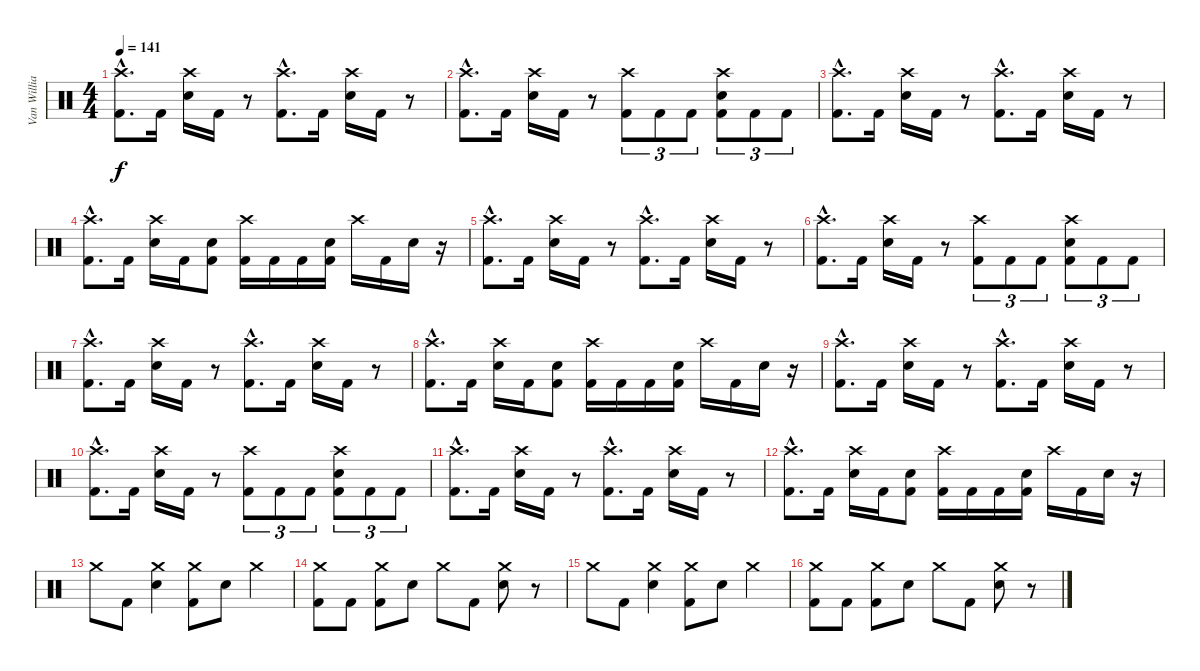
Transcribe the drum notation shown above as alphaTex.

\track ("Van Williams" "Van Willia") {instrument percussion}
\staff {score}
\articulation defaults
\ts (4 4)
\tempo 141
\clef neutral
\ks c
("Crash high (hit)"{hac} "Kick (hit) 2"{hac}).8{d dy f} "Kick (hit) 2".16 ("Crash high (hit)" "Electric Snare (hit)").16 "Kick (hit) 2".16 r.8 ("Crash high (hit)"{hac} "Kick (hit) 2"{hac}).8{d} "Kick (hit) 2".16 ("Crash high (hit)" "Electric Snare (hit)").16 "Kick (hit) 2".16 r.8 |
("Crash high (hit)"{hac} "Kick (hit) 2"{hac}).8{d} "Kick (hit) 2".16 ("Crash high (hit)" "Electric Snare (hit)").16 "Kick (hit) 2".16 r.8 ("Crash high (hit)" "Kick (hit) 2").8{tu (3 2)} "Kick (hit) 2".8{tu (3 2)} "Kick (hit) 2".8{tu (3 2)} ("Crash high (hit)" "Electric Snare (hit)" "Kick (hit) 2").8{tu (3 2)} "Kick (hit) 2".8{tu (3 2)} "Kick (hit) 2".8{tu (3 2)} |
("Crash high (hit)"{hac} "Kick (hit) 2"{hac}).8{d} "Kick (hit) 2".16 ("Crash high (hit)" "Electric Snare (hit)").16 "Kick (hit) 2".16 r.8 ("Crash high (hit)"{hac} "Kick (hit) 2"{hac}).8{d} "Kick (hit) 2".16 ("Crash high (hit)" "Electric Snare (hit)").16 "Kick (hit) 2".16 r.8 |
("Crash high (hit)"{hac} "Kick (hit) 2"{hac}).8{d} "Kick (hit) 2".16 ("Crash high (hit)" "Electric Snare (hit)").16 "Kick (hit) 2".16 ("Electric Snare (hit)" "Kick (hit) 2").8 ("Crash high (hit)" "Kick (hit) 2").16 "Kick (hit) 2".16 "Kick (hit) 2".16 ("Electric Snare (hit)" "Kick (hit) 2").16 "Crash high (hit)".16 "Kick (hit) 2".16 "Electric Snare (hit)".16 r.16 |
("Crash high (hit)"{hac} "Kick (hit) 2"{hac}).8{d} "Kick (hit) 2".16 ("Crash high (hit)" "Electric Snare (hit)").16 "Kick (hit) 2".16 r.8 ("Crash high (hit)"{hac} "Kick (hit) 2"{hac}).8{d} "Kick (hit) 2".16 ("Crash high (hit)" "Electric Snare (hit)").16 "Kick (hit) 2".16 r.8 |
("Crash high (hit)"{hac} "Kick (hit) 2"{hac}).8{d} "Kick (hit) 2".16 ("Crash high (hit)" "Electric Snare (hit)").16 "Kick (hit) 2".16 r.8 ("Crash high (hit)" "Kick (hit) 2").8{tu (3 2)} "Kick (hit) 2".8{tu (3 2)} "Kick (hit) 2".8{tu (3 2)} ("Crash high (hit)" "Electric Snare (hit)" "Kick (hit) 2").8{tu (3 2)} "Kick (hit) 2".8{tu (3 2)} "Kick (hit) 2".8{tu (3 2)} |
("Crash high (hit)"{hac} "Kick (hit) 2"{hac}).8{d} "Kick (hit) 2".16 ("Crash high (hit)" "Electric Snare (hit)").16 "Kick (hit) 2".16 r.8 ("Crash high (hit)"{hac} "Kick (hit) 2"{hac}).8{d} "Kick (hit) 2".16 ("Crash high (hit)" "Electric Snare (hit)").16 "Kick (hit) 2".16 r.8 |
("Crash high (hit)"{hac} "Kick (hit) 2"{hac}).8{d} "Kick (hit) 2".16 ("Crash high (hit)" "Electric Snare (hit)").16 "Kick (hit) 2".16 ("Electric Snare (hit)" "Kick (hit) 2").8 ("Crash high (hit)" "Kick (hit) 2").16 "Kick (hit) 2".16 "Kick (hit) 2".16 ("Electric Snare (hit)" "Kick (hit) 2").16 "Crash high (hit)".16 "Kick (hit) 2".16 "Electric Snare (hit)".16 r.16 |
("Crash high (hit)"{hac} "Kick (hit) 2"{hac}).8{d} "Kick (hit) 2".16 ("Crash high (hit)" "Electric Snare (hit)").16 "Kick (hit) 2".16 r.8 ("Crash high (hit)"{hac} "Kick (hit) 2"{hac}).8{d} "Kick (hit) 2".16 ("Crash high (hit)" "Electric Snare (hit)").16 "Kick (hit) 2".16 r.8 |
("Crash high (hit)"{hac} "Kick (hit) 2"{hac}).8{d} "Kick (hit) 2".16 ("Crash high (hit)" "Electric Snare (hit)").16 "Kick (hit) 2".16 r.8 ("Crash high (hit)" "Kick (hit) 2").8{tu (3 2)} "Kick (hit) 2".8{tu (3 2)} "Kick (hit) 2".8{tu (3 2)} ("Crash high (hit)" "Electric Snare (hit)" "Kick (hit) 2").8{tu (3 2)} "Kick (hit) 2".8{tu (3 2)} "Kick (hit) 2".8{tu (3 2)} |
("Crash high (hit)"{hac} "Kick (hit) 2"{hac}).8{d} "Kick (hit) 2".16 ("Crash high (hit)" "Electric Snare (hit)").16 "Kick (hit) 2".16 r.8 ("Crash high (hit)"{hac} "Kick (hit) 2"{hac}).8{d} "Kick (hit) 2".16 ("Crash high (hit)" "Electric Snare (hit)").16 "Kick (hit) 2".16 r.8 |
("Crash high (hit)"{hac} "Kick (hit) 2"{hac}).8{d} "Kick (hit) 2".16 ("Crash high (hit)" "Electric Snare (hit)").16 "Kick (hit) 2".16 ("Electric Snare (hit)" "Kick (hit) 2").8 ("Crash high (hit)" "Kick (hit) 2").16 "Kick (hit) 2".16 "Kick (hit) 2".16 ("Electric Snare (hit)" "Kick (hit) 2").16 "Crash high (hit)".16 "Kick (hit) 2".16 "Electric Snare (hit)".16 r.16 |
"Crash medium (hit)".8 "Kick (hit) 2".8 ("Crash medium (hit)" "Electric Snare (hit)").4 ("Crash medium (hit)" "Kick (hit) 2").8 "Electric Snare (hit)".8 "Crash medium (hit)".4 |
("Crash medium (hit)" "Kick (hit) 2").8 "Kick (hit) 2".8 ("Crash medium (hit)" "Kick (hit) 2").8 "Electric Snare (hit)".8 "Crash medium (hit)".8 "Kick (hit) 2".8 ("Crash medium (hit)" "Electric Snare (hit)").8 r.8 |
"Crash medium (hit)".8 "Kick (hit) 2".8 ("Crash medium (hit)" "Electric Snare (hit)").4 ("Crash medium (hit)" "Kick (hit) 2").8 "Electric Snare (hit)".8 "Crash medium (hit)".4 |
("Crash medium (hit)" "Kick (hit) 2").8 "Kick (hit) 2".8 ("Crash medium (hit)" "Kick (hit) 2").8 "Electric Snare (hit)".8 "Crash medium (hit)".8 "Kick (hit) 2".8 ("Crash medium (hit)" "Electric Snare (hit)").8 r.8
